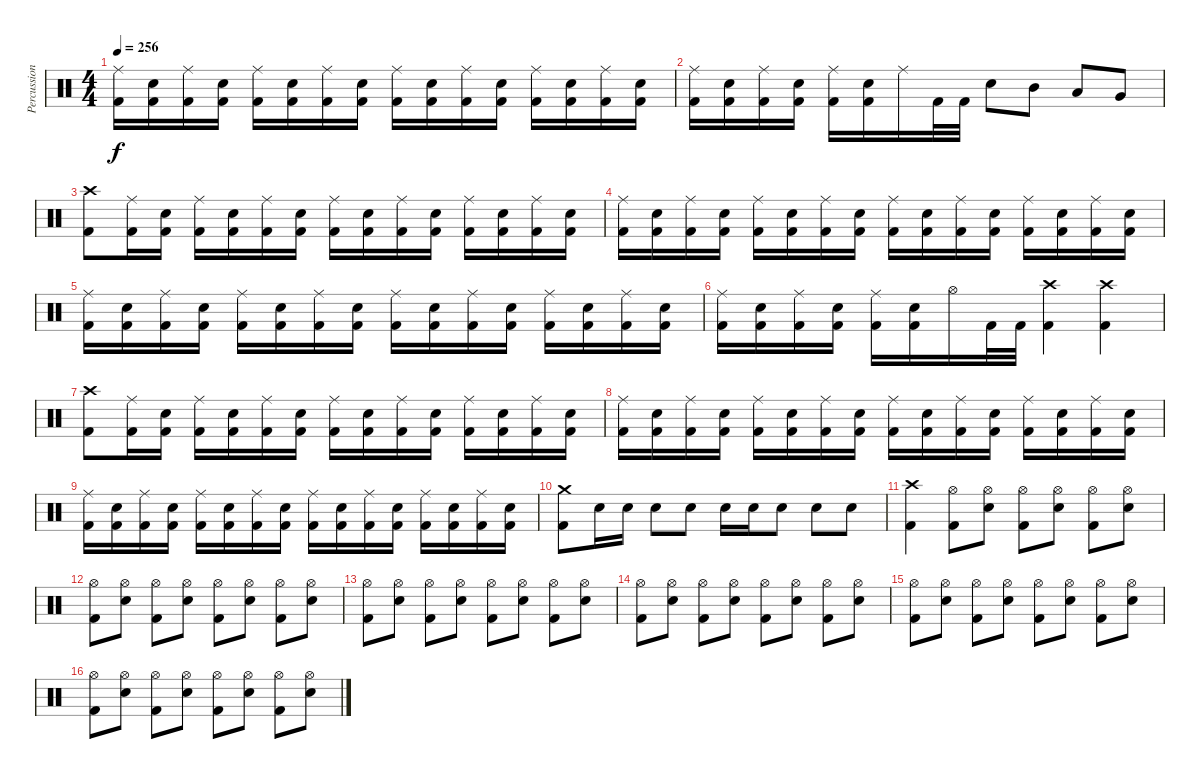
\track ("Percussion" "Percussion") {instrument percussion}
\staff {score}
\articulation defaults
\ts (4 4)
\tempo 256
\clef neutral
\ks c
("Ride (middle)" "Kick (hit) 2").16{dy f} ("Snare (hit) 2" "Kick (hit) 2").16 ("Ride (middle)" "Kick (hit) 2").16 ("Snare (hit) 2" "Kick (hit) 2").16 ("Ride (middle)" "Kick (hit) 2").16 ("Snare (hit) 2" "Kick (hit) 2").16 ("Ride (middle)" "Kick (hit) 2").16 ("Snare (hit) 2" "Kick (hit) 2").16 ("Ride (middle)" "Kick (hit) 2").16 ("Snare (hit) 2" "Kick (hit) 2").16 ("Ride (middle)" "Kick (hit) 2").16 ("Snare (hit) 2" "Kick (hit) 2").16 ("Ride (middle)" "Kick (hit) 2").16 ("Snare (hit) 2" "Kick (hit) 2").16 ("Ride (middle)" "Kick (hit) 2").16 ("Snare (hit) 2" "Kick (hit) 2").16 |
("Ride (middle)" "Kick (hit) 2").16 ("Snare (hit) 2" "Kick (hit) 2").16 ("Ride (middle)" "Kick (hit) 2").16 ("Snare (hit) 2" "Kick (hit) 2").16 ("Ride (middle)" "Kick (hit) 2").16 ("Snare (hit) 2" "Kick (hit) 2").16 "Ride (middle)".16 "Kick (hit) 2".32 "Kick (hit) 2".32 "Snare (hit) 2".8 "Mid Tom (hit)".8 "Low Tom (hit)".8 "Very Low Tom (hit)".8 |
("Crash high (hit)" "Kick (hit) 2").8 ("Ride (middle)" "Kick (hit) 2").16 ("Snare (hit) 2" "Kick (hit) 2").16 ("Ride (middle)" "Kick (hit) 2").16 ("Snare (hit) 2" "Kick (hit) 2").16 ("Ride (middle)" "Kick (hit) 2").16 ("Snare (hit) 2" "Kick (hit) 2").16 ("Ride (middle)" "Kick (hit) 2").16 ("Snare (hit) 2" "Kick (hit) 2").16 ("Ride (middle)" "Kick (hit) 2").16 ("Snare (hit) 2" "Kick (hit) 2").16 ("Ride (middle)" "Kick (hit) 2").16 ("Kick (hit) 2" "Snare (hit) 2").16 ("Ride (middle)" "Kick (hit) 2").16 ("Kick (hit) 2" "Snare (hit) 2").16 |
("Ride (middle)" "Kick (hit) 2").16 ("Snare (hit) 2" "Kick (hit) 2").16 ("Ride (middle)" "Kick (hit) 2").16 ("Snare (hit) 2" "Kick (hit) 2").16 ("Ride (middle)" "Kick (hit) 2").16 ("Snare (hit) 2" "Kick (hit) 2").16 ("Ride (middle)" "Kick (hit) 2").16 ("Snare (hit) 2" "Kick (hit) 2").16 ("Ride (middle)" "Kick (hit) 2").16 ("Snare (hit) 2" "Kick (hit) 2").16 ("Ride (middle)" "Kick (hit) 2").16 ("Snare (hit) 2" "Kick (hit) 2").16 ("Ride (middle)" "Kick (hit) 2").16 ("Snare (hit) 2" "Kick (hit) 2").16 ("Ride (middle)" "Kick (hit) 2").16 ("Snare (hit) 2" "Kick (hit) 2").16 |
("Ride (middle)" "Kick (hit) 2").16 ("Snare (hit) 2" "Kick (hit) 2").16 ("Ride (middle)" "Kick (hit) 2").16 ("Snare (hit) 2" "Kick (hit) 2").16 ("Ride (middle)" "Kick (hit) 2").16 ("Snare (hit) 2" "Kick (hit) 2").16 ("Ride (middle)" "Kick (hit) 2").16 ("Snare (hit) 2" "Kick (hit) 2").16 ("Ride (middle)" "Kick (hit) 2").16 ("Snare (hit) 2" "Kick (hit) 2").16 ("Ride (middle)" "Kick (hit) 2").16 ("Snare (hit) 2" "Kick (hit) 2").16 ("Ride (middle)" "Kick (hit) 2").16 ("Snare (hit) 2" "Kick (hit) 2").16 ("Ride (middle)" "Kick (hit) 2").16 ("Snare (hit) 2" "Kick (hit) 2").16 |
("Ride (middle)" "Kick (hit) 2").16 ("Snare (hit) 2" "Kick (hit) 2").16 ("Ride (middle)" "Kick (hit) 2").16 ("Snare (hit) 2" "Kick (hit) 2").16 ("Ride (middle)" "Kick (hit) 2").16 ("Snare (hit) 2" "Kick (hit) 2").16 "Hi-Hat (open)".16 "Kick (hit) 2".32 "Kick (hit) 2".32 ("Crash high (hit)" "Kick (hit) 2").4 ("Crash high (hit)" "Kick (hit) 2").4 |
("Crash high (hit)" "Kick (hit) 2").8 ("Ride (middle)" "Kick (hit) 2").16 ("Snare (hit) 2" "Kick (hit) 2").16 ("Ride (middle)" "Kick (hit) 2").16 ("Snare (hit) 2" "Kick (hit) 2").16 ("Ride (middle)" "Kick (hit) 2").16 ("Snare (hit) 2" "Kick (hit) 2").16 ("Ride (middle)" "Kick (hit) 2").16 ("Snare (hit) 2" "Kick (hit) 2").16 ("Ride (middle)" "Kick (hit) 2").16 ("Snare (hit) 2" "Kick (hit) 2").16 ("Ride (middle)" "Kick (hit) 2").16 ("Kick (hit) 2" "Snare (hit) 2").16 ("Ride (middle)" "Kick (hit) 2").16 ("Kick (hit) 2" "Snare (hit) 2").16 |
("Ride (middle)" "Kick (hit) 2").16 ("Snare (hit) 2" "Kick (hit) 2").16 ("Ride (middle)" "Kick (hit) 2").16 ("Snare (hit) 2" "Kick (hit) 2").16 ("Ride (middle)" "Kick (hit) 2").16 ("Snare (hit) 2" "Kick (hit) 2").16 ("Ride (middle)" "Kick (hit) 2").16 ("Snare (hit) 2" "Kick (hit) 2").16 ("Ride (middle)" "Kick (hit) 2").16 ("Snare (hit) 2" "Kick (hit) 2").16 ("Ride (middle)" "Kick (hit) 2").16 ("Snare (hit) 2" "Kick (hit) 2").16 ("Ride (middle)" "Kick (hit) 2").16 ("Snare (hit) 2" "Kick (hit) 2").16 ("Ride (middle)" "Kick (hit) 2").16 ("Snare (hit) 2" "Kick (hit) 2").16 |
("Ride (middle)" "Kick (hit) 2").16 ("Snare (hit) 2" "Kick (hit) 2").16 ("Ride (middle)" "Kick (hit) 2").16 ("Snare (hit) 2" "Kick (hit) 2").16 ("Ride (middle)" "Kick (hit) 2").16 ("Snare (hit) 2" "Kick (hit) 2").16 ("Ride (middle)" "Kick (hit) 2").16 ("Snare (hit) 2" "Kick (hit) 2").16 ("Ride (middle)" "Kick (hit) 2").16 ("Snare (hit) 2" "Kick (hit) 2").16 ("Ride (middle)" "Kick (hit) 2").16 ("Snare (hit) 2" "Kick (hit) 2").16 ("Ride (middle)" "Kick (hit) 2").16 ("Snare (hit) 2" "Kick (hit) 2").16 ("Ride (middle)" "Kick (hit) 2").16 ("Snare (hit) 2" "Kick (hit) 2").16 |
("Crash medium (hit)" "Kick (hit) 2").8 "Snare (hit) 2".16 "Snare (hit) 2".16 "Snare (hit) 2".8 "Snare (hit) 2".8 "Snare (hit) 2".16 "Snare (hit) 2".16 "Snare (hit) 2".8 "Snare (hit) 2".8 "Snare (hit) 2".8 |
("Crash high (hit)" "Kick (hit) 2").4 ("Hi-Hat (open)" "Kick (hit) 2").8 ("Hi-Hat (open)" "Snare (hit) 2").8 ("Hi-Hat (open)" "Kick (hit) 2").8 ("Hi-Hat (open)" "Snare (hit) 2").8 ("Hi-Hat (open)" "Kick (hit) 2").8 ("Hi-Hat (open)" "Snare (hit) 2").8 |
("Hi-Hat (open)" "Kick (hit) 2").8 ("Hi-Hat (open)" "Snare (hit) 2").8 ("Hi-Hat (open)" "Kick (hit) 2").8 ("Hi-Hat (open)" "Snare (hit) 2").8 ("Hi-Hat (open)" "Kick (hit) 2").8 ("Hi-Hat (open)" "Snare (hit) 2").8 ("Hi-Hat (open)" "Kick (hit) 2").8 ("Hi-Hat (open)" "Snare (hit) 2").8 |
("Hi-Hat (open)" "Kick (hit) 2").8 ("Hi-Hat (open)" "Snare (hit) 2").8 ("Hi-Hat (open)" "Kick (hit) 2").8 ("Hi-Hat (open)" "Snare (hit) 2").8 ("Hi-Hat (open)" "Kick (hit) 2").8 ("Hi-Hat (open)" "Snare (hit) 2").8 ("Hi-Hat (open)" "Kick (hit) 2").8 ("Hi-Hat (open)" "Snare (hit) 2").8 |
("Hi-Hat (open)" "Kick (hit) 2").8 ("Hi-Hat (open)" "Snare (hit) 2").8 ("Hi-Hat (open)" "Kick (hit) 2").8 ("Hi-Hat (open)" "Snare (hit) 2").8 ("Hi-Hat (open)" "Kick (hit) 2").8 ("Hi-Hat (open)" "Snare (hit) 2").8 ("Hi-Hat (open)" "Kick (hit) 2").8 ("Hi-Hat (open)" "Snare (hit) 2").8 |
("Hi-Hat (open)" "Kick (hit) 2").8 ("Hi-Hat (open)" "Snare (hit) 2").8 ("Hi-Hat (open)" "Kick (hit) 2").8 ("Hi-Hat (open)" "Snare (hit) 2").8 ("Hi-Hat (open)" "Kick (hit) 2").8 ("Hi-Hat (open)" "Snare (hit) 2").8 ("Hi-Hat (open)" "Kick (hit) 2").8 ("Hi-Hat (open)" "Snare (hit) 2").8 |
("Hi-Hat (open)" "Kick (hit) 2").8 ("Hi-Hat (open)" "Snare (hit) 2").8 ("Hi-Hat (open)" "Kick (hit) 2").8 ("Hi-Hat (open)" "Snare (hit) 2").8 ("Hi-Hat (open)" "Kick (hit) 2").8 ("Hi-Hat (open)" "Snare (hit) 2").8 ("Hi-Hat (open)" "Kick (hit) 2").8 ("Hi-Hat (open)" "Snare (hit) 2").8
